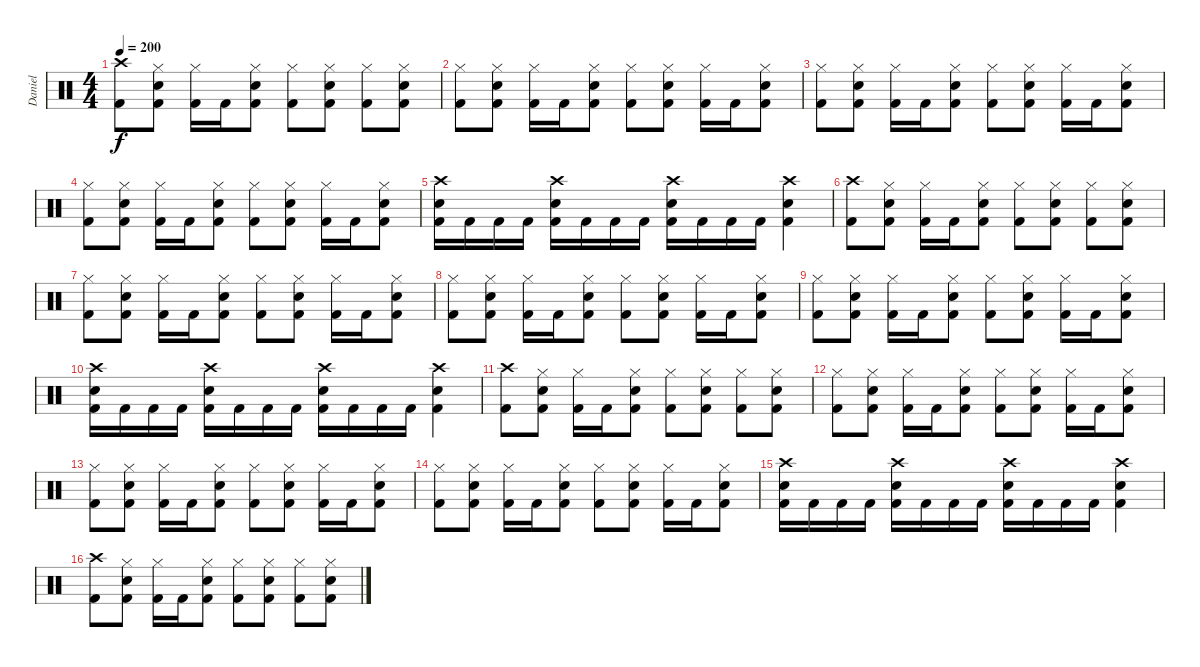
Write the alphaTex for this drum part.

\track ("Daniel" "Daniel") {instrument percussion}
\staff {score}
\articulation defaults
\ts (4 4)
\tempo 200
\clef neutral
\ks c
("Crash high (hit)" "Kick (hit) 2").8{dy f} ("Hi-Hat (closed)" "Electric Snare (hit)" "Kick (hit) 2").8 ("Hi-Hat (closed)" "Kick (hit) 2").16 "Kick (hit) 2".16 ("Hi-Hat (closed)" "Electric Snare (hit)" "Kick (hit) 2").8 ("Hi-Hat (closed)" "Kick (hit) 2").8 ("Hi-Hat (closed)" "Electric Snare (hit)" "Kick (hit) 2").8 ("Hi-Hat (closed)" "Kick (hit) 2").8 ("Hi-Hat (closed)" "Electric Snare (hit)" "Kick (hit) 2").8 |
("Hi-Hat (closed)" "Kick (hit) 2").8 ("Hi-Hat (closed)" "Electric Snare (hit)" "Kick (hit) 2").8 ("Hi-Hat (closed)" "Kick (hit) 2").16 "Kick (hit) 2".16 ("Hi-Hat (closed)" "Electric Snare (hit)" "Kick (hit) 2").8 ("Hi-Hat (closed)" "Kick (hit) 2").8 ("Hi-Hat (closed)" "Electric Snare (hit)" "Kick (hit) 2").8 ("Hi-Hat (closed)" "Kick (hit) 2").16 "Kick (hit) 2".16 ("Hi-Hat (closed)" "Electric Snare (hit)" "Kick (hit) 2").8 |
("Hi-Hat (closed)" "Kick (hit) 2").8 ("Hi-Hat (closed)" "Electric Snare (hit)" "Kick (hit) 2").8 ("Hi-Hat (closed)" "Kick (hit) 2").16 "Kick (hit) 2".16 ("Hi-Hat (closed)" "Electric Snare (hit)" "Kick (hit) 2").8 ("Hi-Hat (closed)" "Kick (hit) 2").8 ("Hi-Hat (closed)" "Electric Snare (hit)" "Kick (hit) 2").8 ("Hi-Hat (closed)" "Kick (hit) 2").16 "Kick (hit) 2".16 ("Hi-Hat (closed)" "Electric Snare (hit)" "Kick (hit) 2").8 |
("Hi-Hat (closed)" "Kick (hit) 2").8 ("Hi-Hat (closed)" "Electric Snare (hit)" "Kick (hit) 2").8 ("Hi-Hat (closed)" "Kick (hit) 2").16 "Kick (hit) 2".16 ("Hi-Hat (closed)" "Electric Snare (hit)" "Kick (hit) 2").8 ("Hi-Hat (closed)" "Kick (hit) 2").8 ("Hi-Hat (closed)" "Electric Snare (hit)" "Kick (hit) 2").8 ("Hi-Hat (closed)" "Kick (hit) 2").16 "Kick (hit) 2".16 ("Hi-Hat (closed)" "Electric Snare (hit)" "Kick (hit) 2").8 |
("Crash high (hit)" "Electric Snare (hit)" "Kick (hit) 2").16 "Kick (hit) 2".16 "Kick (hit) 2".16 "Kick (hit) 2".16 ("Crash high (hit)" "Electric Snare (hit)" "Kick (hit) 2").16 "Kick (hit) 2".16 "Kick (hit) 2".16 "Kick (hit) 2".16 ("Crash high (hit)" "Electric Snare (hit)" "Kick (hit) 2").16 "Kick (hit) 2".16 "Kick (hit) 2".16 "Kick (hit) 2".16 ("Crash high (hit)" "Electric Snare (hit)" "Kick (hit) 2").4 |
("Crash high (hit)" "Kick (hit) 2").8 ("Hi-Hat (closed)" "Electric Snare (hit)" "Kick (hit) 2").8 ("Hi-Hat (closed)" "Kick (hit) 2").16 "Kick (hit) 2".16 ("Hi-Hat (closed)" "Electric Snare (hit)" "Kick (hit) 2").8 ("Hi-Hat (closed)" "Kick (hit) 2").8 ("Hi-Hat (closed)" "Electric Snare (hit)" "Kick (hit) 2").8 ("Hi-Hat (closed)" "Kick (hit) 2").8 ("Hi-Hat (closed)" "Electric Snare (hit)" "Kick (hit) 2").8 |
("Hi-Hat (closed)" "Kick (hit) 2").8 ("Hi-Hat (closed)" "Electric Snare (hit)" "Kick (hit) 2").8 ("Hi-Hat (closed)" "Kick (hit) 2").16 "Kick (hit) 2".16 ("Hi-Hat (closed)" "Electric Snare (hit)" "Kick (hit) 2").8 ("Hi-Hat (closed)" "Kick (hit) 2").8 ("Hi-Hat (closed)" "Electric Snare (hit)" "Kick (hit) 2").8 ("Hi-Hat (closed)" "Kick (hit) 2").16 "Kick (hit) 2".16 ("Hi-Hat (closed)" "Electric Snare (hit)" "Kick (hit) 2").8 |
("Hi-Hat (closed)" "Kick (hit) 2").8 ("Hi-Hat (closed)" "Electric Snare (hit)" "Kick (hit) 2").8 ("Hi-Hat (closed)" "Kick (hit) 2").16 "Kick (hit) 2".16 ("Hi-Hat (closed)" "Electric Snare (hit)" "Kick (hit) 2").8 ("Hi-Hat (closed)" "Kick (hit) 2").8 ("Hi-Hat (closed)" "Electric Snare (hit)" "Kick (hit) 2").8 ("Hi-Hat (closed)" "Kick (hit) 2").16 "Kick (hit) 2".16 ("Hi-Hat (closed)" "Electric Snare (hit)" "Kick (hit) 2").8 |
("Hi-Hat (closed)" "Kick (hit) 2").8 ("Hi-Hat (closed)" "Electric Snare (hit)" "Kick (hit) 2").8 ("Hi-Hat (closed)" "Kick (hit) 2").16 "Kick (hit) 2".16 ("Hi-Hat (closed)" "Electric Snare (hit)" "Kick (hit) 2").8 ("Hi-Hat (closed)" "Kick (hit) 2").8 ("Hi-Hat (closed)" "Electric Snare (hit)" "Kick (hit) 2").8 ("Hi-Hat (closed)" "Kick (hit) 2").16 "Kick (hit) 2".16 ("Hi-Hat (closed)" "Electric Snare (hit)" "Kick (hit) 2").8 |
("Crash high (hit)" "Electric Snare (hit)" "Kick (hit) 2").16 "Kick (hit) 2".16 "Kick (hit) 2".16 "Kick (hit) 2".16 ("Crash high (hit)" "Electric Snare (hit)" "Kick (hit) 2").16 "Kick (hit) 2".16 "Kick (hit) 2".16 "Kick (hit) 2".16 ("Crash high (hit)" "Electric Snare (hit)" "Kick (hit) 2").16 "Kick (hit) 2".16 "Kick (hit) 2".16 "Kick (hit) 2".16 ("Crash high (hit)" "Electric Snare (hit)" "Kick (hit) 2").4 |
("Crash high (hit)" "Kick (hit) 2").8 ("Hi-Hat (closed)" "Electric Snare (hit)" "Kick (hit) 2").8 ("Hi-Hat (closed)" "Kick (hit) 2").16 "Kick (hit) 2".16 ("Hi-Hat (closed)" "Electric Snare (hit)" "Kick (hit) 2").8 ("Hi-Hat (closed)" "Kick (hit) 2").8 ("Hi-Hat (closed)" "Electric Snare (hit)" "Kick (hit) 2").8 ("Hi-Hat (closed)" "Kick (hit) 2").8 ("Hi-Hat (closed)" "Electric Snare (hit)" "Kick (hit) 2").8 |
("Hi-Hat (closed)" "Kick (hit) 2").8 ("Hi-Hat (closed)" "Electric Snare (hit)" "Kick (hit) 2").8 ("Hi-Hat (closed)" "Kick (hit) 2").16 "Kick (hit) 2".16 ("Hi-Hat (closed)" "Electric Snare (hit)" "Kick (hit) 2").8 ("Hi-Hat (closed)" "Kick (hit) 2").8 ("Hi-Hat (closed)" "Electric Snare (hit)" "Kick (hit) 2").8 ("Hi-Hat (closed)" "Kick (hit) 2").16 "Kick (hit) 2".16 ("Hi-Hat (closed)" "Electric Snare (hit)" "Kick (hit) 2").8 |
("Hi-Hat (closed)" "Kick (hit) 2").8 ("Hi-Hat (closed)" "Electric Snare (hit)" "Kick (hit) 2").8 ("Hi-Hat (closed)" "Kick (hit) 2").16 "Kick (hit) 2".16 ("Hi-Hat (closed)" "Electric Snare (hit)" "Kick (hit) 2").8 ("Hi-Hat (closed)" "Kick (hit) 2").8 ("Hi-Hat (closed)" "Electric Snare (hit)" "Kick (hit) 2").8 ("Hi-Hat (closed)" "Kick (hit) 2").16 "Kick (hit) 2".16 ("Hi-Hat (closed)" "Electric Snare (hit)" "Kick (hit) 2").8 |
("Hi-Hat (closed)" "Kick (hit) 2").8 ("Hi-Hat (closed)" "Electric Snare (hit)" "Kick (hit) 2").8 ("Hi-Hat (closed)" "Kick (hit) 2").16 "Kick (hit) 2".16 ("Hi-Hat (closed)" "Electric Snare (hit)" "Kick (hit) 2").8 ("Hi-Hat (closed)" "Kick (hit) 2").8 ("Hi-Hat (closed)" "Electric Snare (hit)" "Kick (hit) 2").8 ("Hi-Hat (closed)" "Kick (hit) 2").16 "Kick (hit) 2".16 ("Hi-Hat (closed)" "Electric Snare (hit)" "Kick (hit) 2").8 |
("Crash high (hit)" "Electric Snare (hit)" "Kick (hit) 2").16 "Kick (hit) 2".16 "Kick (hit) 2".16 "Kick (hit) 2".16 ("Crash high (hit)" "Electric Snare (hit)" "Kick (hit) 2").16 "Kick (hit) 2".16 "Kick (hit) 2".16 "Kick (hit) 2".16 ("Crash high (hit)" "Electric Snare (hit)" "Kick (hit) 2").16 "Kick (hit) 2".16 "Kick (hit) 2".16 "Kick (hit) 2".16 ("Crash high (hit)" "Electric Snare (hit)" "Kick (hit) 2").4 |
("Crash high (hit)" "Kick (hit) 2").8 ("Hi-Hat (closed)" "Electric Snare (hit)" "Kick (hit) 2").8 ("Hi-Hat (closed)" "Kick (hit) 2").16 "Kick (hit) 2".16 ("Hi-Hat (closed)" "Electric Snare (hit)" "Kick (hit) 2").8 ("Hi-Hat (closed)" "Kick (hit) 2").8 ("Hi-Hat (closed)" "Electric Snare (hit)" "Kick (hit) 2").8 ("Hi-Hat (closed)" "Kick (hit) 2").8 ("Hi-Hat (closed)" "Electric Snare (hit)" "Kick (hit) 2").8
